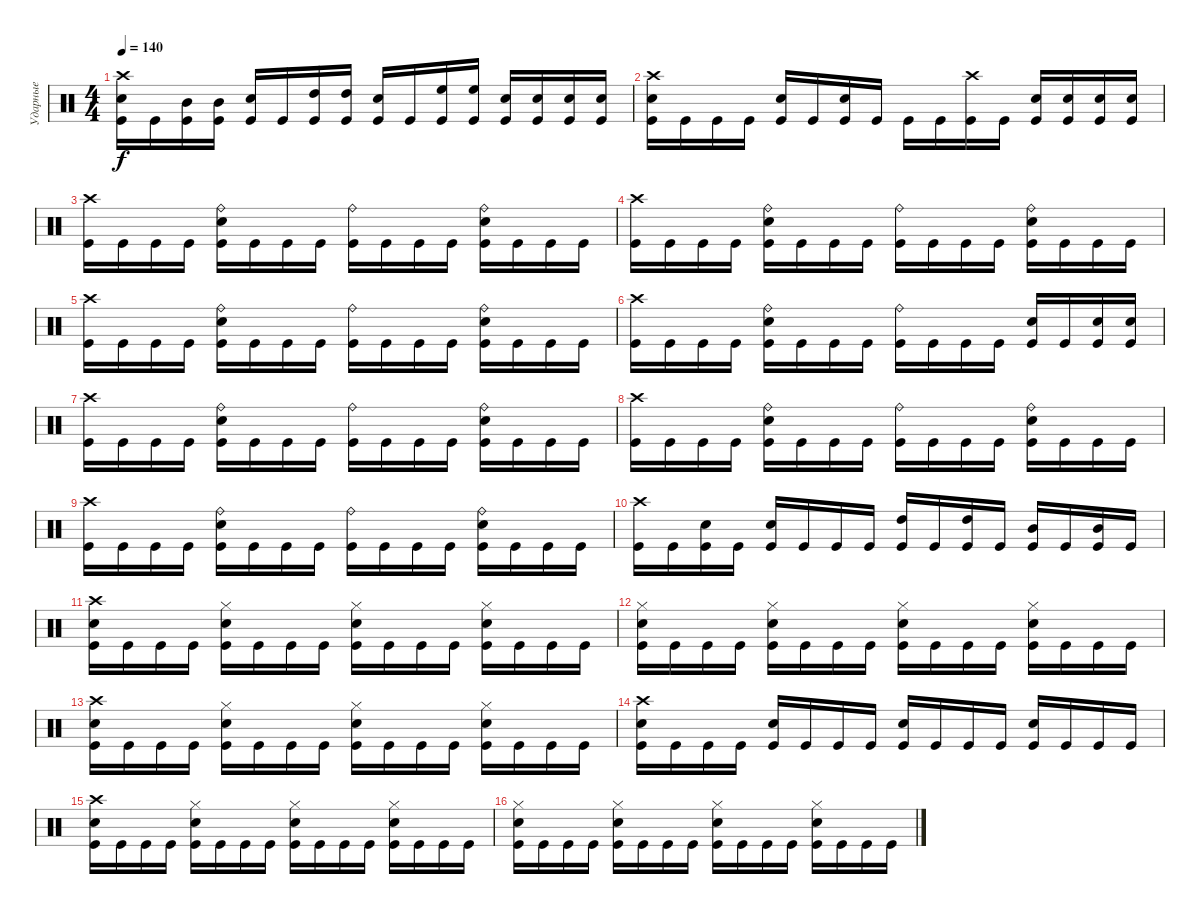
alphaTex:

\track ("Ударные" "Ударные") {instrument percussion}
\staff {score}
\articulation defaults
\ts (4 4)
\tempo 140
\clef neutral
\ks c
("Crash high (hit)" "Electric Snare (hit)" "Kick (hit)").16{dy f} "Kick (hit)".16 ("Mid Tom (hit)" "Kick (hit)").16 ("Mid Tom (hit)" "Kick (hit)").16 ("Electric Snare (hit)" "Kick (hit)").16 "Kick (hit)".16 ("High Tom (hit)" "Kick (hit)").16 ("High Tom (hit)" "Kick (hit)").16 ("Electric Snare (hit)" "Kick (hit)").16 "Kick (hit)".16 ("High Floor Tom (hit)" "Kick (hit)").16 ("High Floor Tom (hit)" "Kick (hit)").16 ("Electric Snare (hit)" "Kick (hit)").16 ("Electric Snare (hit)" "Kick (hit)").16 ("Electric Snare (hit)" "Kick (hit)").16 ("Electric Snare (hit)" "Kick (hit)").16 |
("Crash high (hit)" "Electric Snare (hit)" "Kick (hit)").16 "Kick (hit)".16 "Kick (hit)".16 "Kick (hit)".16 ("Electric Snare (hit)" "Kick (hit)").16 "Kick (hit)".16 ("Electric Snare (hit)" "Kick (hit)").16 "Kick (hit)".16 "Kick (hit)".16 "Kick (hit)".16 ("Crash high (hit)" "Kick (hit)").16 "Kick (hit)".16 ("Electric Snare (hit)" "Kick (hit)").16 ("Electric Snare (hit)" "Kick (hit)").16 ("Electric Snare (hit)" "Kick (hit)").16 ("Electric Snare (hit)" "Kick (hit)").16 |
("Crash high (hit)" "Kick (hit)").16 "Kick (hit)".16 "Kick (hit)".16 "Kick (hit)".16 ("Ride (bell)" "Electric Snare (hit)" "Kick (hit)").16 "Kick (hit)".16 "Kick (hit)".16 "Kick (hit)".16 ("Ride (bell)" "Kick (hit)").16 "Kick (hit)".16 "Kick (hit)".16 "Kick (hit)".16 ("Ride (bell)" "Electric Snare (hit)" "Kick (hit)").16 "Kick (hit)".16 "Kick (hit)".16 "Kick (hit)".16 |
("Crash high (hit)" "Kick (hit)").16 "Kick (hit)".16 "Kick (hit)".16 "Kick (hit)".16 ("Ride (bell)" "Electric Snare (hit)" "Kick (hit)").16 "Kick (hit)".16 "Kick (hit)".16 "Kick (hit)".16 ("Ride (bell)" "Kick (hit)").16 "Kick (hit)".16 "Kick (hit)".16 "Kick (hit)".16 ("Ride (bell)" "Electric Snare (hit)" "Kick (hit)").16 "Kick (hit)".16 "Kick (hit)".16 "Kick (hit)".16 |
("Crash high (hit)" "Kick (hit)").16 "Kick (hit)".16 "Kick (hit)".16 "Kick (hit)".16 ("Ride (bell)" "Electric Snare (hit)" "Kick (hit)").16 "Kick (hit)".16 "Kick (hit)".16 "Kick (hit)".16 ("Ride (bell)" "Kick (hit)").16 "Kick (hit)".16 "Kick (hit)".16 "Kick (hit)".16 ("Ride (bell)" "Electric Snare (hit)" "Kick (hit)").16 "Kick (hit)".16 "Kick (hit)".16 "Kick (hit)".16 |
("Crash high (hit)" "Kick (hit)").16 "Kick (hit)".16 "Kick (hit)".16 "Kick (hit)".16 ("Ride (bell)" "Electric Snare (hit)" "Kick (hit)").16 "Kick (hit)".16 "Kick (hit)".16 "Kick (hit)".16 ("Ride (bell)" "Kick (hit)").16 "Kick (hit)".16 "Kick (hit)".16 "Kick (hit)".16 ("Electric Snare (hit)" "Kick (hit)").16 "Kick (hit)".16 ("Electric Snare (hit)" "Kick (hit)").16 ("Electric Snare (hit)" "Kick (hit)").16 |
("Crash high (hit)" "Kick (hit)").16 "Kick (hit)".16 "Kick (hit)".16 "Kick (hit)".16 ("Ride (bell)" "Electric Snare (hit)" "Kick (hit)").16 "Kick (hit)".16 "Kick (hit)".16 "Kick (hit)".16 ("Ride (bell)" "Kick (hit)").16 "Kick (hit)".16 "Kick (hit)".16 "Kick (hit)".16 ("Ride (bell)" "Electric Snare (hit)" "Kick (hit)").16 "Kick (hit)".16 "Kick (hit)".16 "Kick (hit)".16 |
("Crash high (hit)" "Kick (hit)").16 "Kick (hit)".16 "Kick (hit)".16 "Kick (hit)".16 ("Ride (bell)" "Electric Snare (hit)" "Kick (hit)").16 "Kick (hit)".16 "Kick (hit)".16 "Kick (hit)".16 ("Ride (bell)" "Kick (hit)").16 "Kick (hit)".16 "Kick (hit)".16 "Kick (hit)".16 ("Ride (bell)" "Electric Snare (hit)" "Kick (hit)").16 "Kick (hit)".16 "Kick (hit)".16 "Kick (hit)".16 |
("Crash high (hit)" "Kick (hit)").16 "Kick (hit)".16 "Kick (hit)".16 "Kick (hit)".16 ("Ride (bell)" "Electric Snare (hit)" "Kick (hit)").16 "Kick (hit)".16 "Kick (hit)".16 "Kick (hit)".16 ("Ride (bell)" "Kick (hit)").16 "Kick (hit)".16 "Kick (hit)".16 "Kick (hit)".16 ("Ride (bell)" "Electric Snare (hit)" "Kick (hit)").16 "Kick (hit)".16 "Kick (hit)".16 "Kick (hit)".16 |
("Crash high (hit)" "Kick (hit)").16 "Kick (hit)".16 ("Electric Snare (hit)" "Kick (hit)").16 "Kick (hit)".16 ("Electric Snare (hit)" "Kick (hit)").16 "Kick (hit)".16 "Kick (hit)".16 "Kick (hit)".16 ("High Tom (hit)" "Kick (hit)").16 "Kick (hit)".16 ("High Tom (hit)" "Kick (hit)").16 "Kick (hit)".16 ("Mid Tom (hit)" "Kick (hit)").16 "Kick (hit)".16 ("Mid Tom (hit)" "Kick (hit)").16 "Kick (hit)".16 |
("Crash high (hit)" "Electric Snare (hit)" "Kick (hit)").16 "Kick (hit)".16 "Kick (hit)".16 "Kick (hit)".16 ("Hi-Hat (closed)" "Electric Snare (hit)" "Kick (hit)").16 "Kick (hit)".16 "Kick (hit)".16 "Kick (hit)".16 ("Hi-Hat (closed)" "Electric Snare (hit)" "Kick (hit)").16 "Kick (hit)".16 "Kick (hit)".16 "Kick (hit)".16 ("Hi-Hat (closed)" "Electric Snare (hit)" "Kick (hit)").16 "Kick (hit)".16 "Kick (hit)".16 "Kick (hit)".16 |
("Hi-Hat (closed)" "Electric Snare (hit)" "Kick (hit)").16 "Kick (hit)".16 "Kick (hit)".16 "Kick (hit)".16 ("Hi-Hat (closed)" "Electric Snare (hit)" "Kick (hit)").16 "Kick (hit)".16 "Kick (hit)".16 "Kick (hit)".16 ("Hi-Hat (closed)" "Electric Snare (hit)" "Kick (hit)").16 "Kick (hit)".16 "Kick (hit)".16 "Kick (hit)".16 ("Hi-Hat (closed)" "Electric Snare (hit)" "Kick (hit)").16 "Kick (hit)".16 "Kick (hit)".16 "Kick (hit)".16 |
("Crash high (hit)" "Electric Snare (hit)" "Kick (hit)").16 "Kick (hit)".16 "Kick (hit)".16 "Kick (hit)".16 ("Hi-Hat (closed)" "Electric Snare (hit)" "Kick (hit)").16 "Kick (hit)".16 "Kick (hit)".16 "Kick (hit)".16 ("Hi-Hat (closed)" "Electric Snare (hit)" "Kick (hit)").16 "Kick (hit)".16 "Kick (hit)".16 "Kick (hit)".16 ("Hi-Hat (closed)" "Electric Snare (hit)" "Kick (hit)").16 "Kick (hit)".16 "Kick (hit)".16 "Kick (hit)".16 |
("Crash high (hit)" "Electric Snare (hit)" "Kick (hit)").16 "Kick (hit)".16 "Kick (hit)".16 "Kick (hit)".16 ("Electric Snare (hit)" "Kick (hit)").16 "Kick (hit)".16 "Kick (hit)".16 "Kick (hit)".16 ("Electric Snare (hit)" "Kick (hit)").16 "Kick (hit)".16 "Kick (hit)".16 "Kick (hit)".16 ("Electric Snare (hit)" "Kick (hit)").16 "Kick (hit)".16 "Kick (hit)".16 "Kick (hit)".16 |
("Crash high (hit)" "Electric Snare (hit)" "Kick (hit)").16 "Kick (hit)".16 "Kick (hit)".16 "Kick (hit)".16 ("Hi-Hat (closed)" "Electric Snare (hit)" "Kick (hit)").16 "Kick (hit)".16 "Kick (hit)".16 "Kick (hit)".16 ("Hi-Hat (closed)" "Electric Snare (hit)" "Kick (hit)").16 "Kick (hit)".16 "Kick (hit)".16 "Kick (hit)".16 ("Hi-Hat (closed)" "Electric Snare (hit)" "Kick (hit)").16 "Kick (hit)".16 "Kick (hit)".16 "Kick (hit)".16 |
("Hi-Hat (closed)" "Electric Snare (hit)" "Kick (hit)").16 "Kick (hit)".16 "Kick (hit)".16 "Kick (hit)".16 ("Hi-Hat (closed)" "Electric Snare (hit)" "Kick (hit)").16 "Kick (hit)".16 "Kick (hit)".16 "Kick (hit)".16 ("Hi-Hat (closed)" "Electric Snare (hit)" "Kick (hit)").16 "Kick (hit)".16 "Kick (hit)".16 "Kick (hit)".16 ("Hi-Hat (closed)" "Electric Snare (hit)" "Kick (hit)").16 "Kick (hit)".16 "Kick (hit)".16 "Kick (hit)".16
